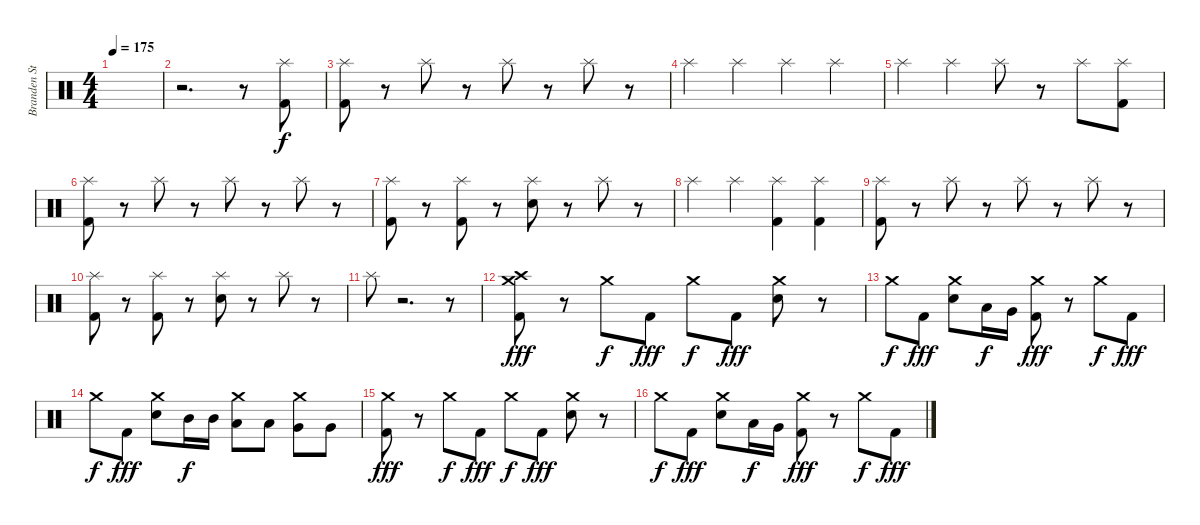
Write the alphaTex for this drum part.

\track ("Branden Steineckert (Drums)" "Branden St") {instrument percussion}
\staff {score}
\articulation defaults
\ts (4 4)
\tempo 175
\clef neutral
\ks c
|
r.2{d} r.8 ("Kick (hit) 2" "Splash (hit)").8{dy f volume 10} |
("Kick (hit) 2" "Splash (hit)").8 r.8 "Splash (hit)".8 r.8 "Splash (hit)".8 r.8 "Splash (hit)".8 r.8 |
"Splash (hit)".4 "Splash (hit)".4 "Splash (hit)".4 "Splash (hit)".4 |
"Splash (hit)".4 "Splash (hit)".4 "Splash (hit)".8 r.8 "Splash (hit)".8 ("Kick (hit) 2" "Splash (hit)").8{volume 10} |
("Kick (hit) 2" "Splash (hit)").8 r.8 "Splash (hit)".8 r.8 "Splash (hit)".8 r.8 "Splash (hit)".8 r.8 |
("Kick (hit) 2" "Splash (hit)").8 r.8 ("Kick (hit) 2" "Splash (hit)").8 r.8 ("Electric Snare (hit)" "Splash (hit)").8 r.8 "Splash (hit)".8 r.8 |
"Splash (hit)".4 "Splash (hit)".4 ("Kick (hit) 2" "Splash (hit)").4 ("Kick (hit) 2" "Splash (hit)").4 |
("Kick (hit) 2" "Splash (hit)").8 r.8 "Splash (hit)".8 r.8 "Splash (hit)".8 r.8 "Splash (hit)".8 r.8 |
("Kick (hit) 2" "Splash (hit)").8 r.8 ("Kick (hit) 2" "Splash (hit)").8 r.8 ("Electric Snare (hit)" "Splash (hit)").8 r.8 "Splash (hit)".8 r.8 |
"Splash (hit)".8 r.2{d} r.8 |
("Kick (hit) 2" "Crash high (hit)" "Crash medium (hit)").8{dy fff} r.8 "Crash medium (hit)".8{dy f} "Kick (hit) 2".8{dy fff} "Crash medium (hit)".8{dy f} "Kick (hit) 2".8{dy fff} ("Electric Snare (hit)" "Crash medium (hit)").8 r.8 |
"Crash medium (hit)".8{dy f} "Kick (hit) 2".8{dy fff} ("Electric Snare (hit)" "Crash medium (hit)").8 "Low Tom (hit)".16{dy f} "Very Low Tom (hit)".16 ("Kick (hit) 2" "Crash medium (hit)").8{dy fff} r.8 "Crash medium (hit)".8{dy f} "Kick (hit) 2".8{dy fff} |
"Crash medium (hit)".8{dy f} "Kick (hit) 2".8{dy fff} ("Electric Snare (hit)" "Crash medium (hit)").8 "Mid Tom (hit)".16{dy f} "Mid Tom (hit)".16 ("Low Tom (hit)" "Crash medium (hit)").8 "Low Tom (hit)".8 ("Very Low Tom (hit)" "Crash medium (hit)").8 "Very Low Tom (hit)".8 |
("Kick (hit) 2" "Crash medium (hit)").8{dy fff} r.8 "Crash medium (hit)".8{dy f} "Kick (hit) 2".8{dy fff} "Crash medium (hit)".8{dy f} "Kick (hit) 2".8{dy fff} ("Electric Snare (hit)" "Crash medium (hit)").8 r.8 |
"Crash medium (hit)".8{dy f} "Kick (hit) 2".8{dy fff} ("Electric Snare (hit)" "Crash medium (hit)").8 "Low Tom (hit)".16{dy f} "Very Low Tom (hit)".16 ("Kick (hit) 2" "Crash medium (hit)").8{dy fff} r.8 "Crash medium (hit)".8{dy f} "Kick (hit) 2".8{dy fff}
